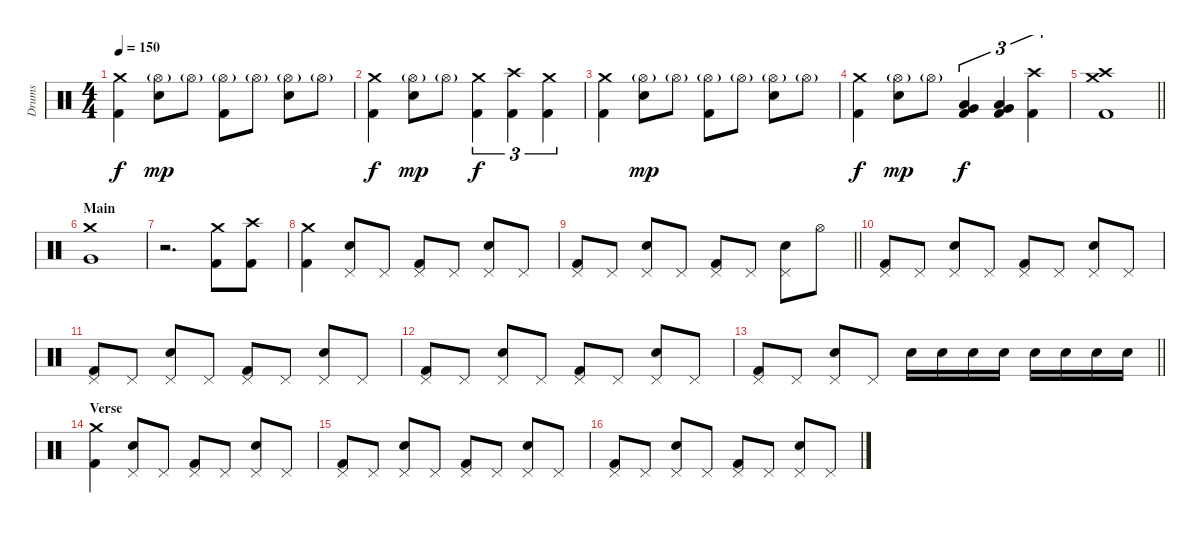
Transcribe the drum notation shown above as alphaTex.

\track ("Drums" "Drums") {instrument percussion}
\staff {score}
\articulation defaults
\ts (4 4)
\tempo 150
\clef neutral
\ks c
("Kick (hit) 2" "Crash medium (hit)").4{dy f} ("Snare (hit) 2" "Hi-Hat (open)"{g}).8{dy mp} "Hi-Hat (open)"{g}.8 ("Kick (hit) 2" "Hi-Hat (open)"{g}).8 "Hi-Hat (open)"{g}.8 ("Snare (hit) 2" "Hi-Hat (open)"{g}).8 "Hi-Hat (open)"{g}.8 |
("Kick (hit) 2" "Crash medium (hit)").4{dy f} ("Snare (hit) 2" "Hi-Hat (open)"{g}).8{dy mp} "Hi-Hat (open)"{g}.8 ("Kick (hit) 2" "Crash medium (hit)").4{tu (3 2) dy f} ("Kick (hit) 2" "Crash high (hit)").4{tu (3 2)} ("Kick (hit) 2" "Crash medium (hit)").4{tu (3 2)} |
("Kick (hit) 2" "Crash medium (hit)").4 ("Snare (hit) 2" "Hi-Hat (open)"{g}).8{dy mp} "Hi-Hat (open)"{g}.8 ("Kick (hit) 2" "Hi-Hat (open)"{g}).8 "Hi-Hat (open)"{g}.8 ("Snare (hit) 2" "Hi-Hat (open)"{g}).8 "Hi-Hat (open)"{g}.8 |
("Kick (hit) 2" "Crash medium (hit)").4{dy f} ("Snare (hit) 2" "Hi-Hat (open)"{g}).8{dy mp} "Hi-Hat (open)"{g}.8 ("Kick (hit) 2" "Low Tom (hit)" "Very Low Tom (hit)").4{tu (3 2) dy f} ("Kick (hit) 2" "Very Low Tom (hit)" "Low Floor Tom (hit)").4{tu (3 2)} ("Kick (hit) 2" "Crash high (hit)").4{tu (3 2)} |
\barLineRight lightlight
("Kick (hit) 2" "Crash high (hit)" "Crash medium (hit)").1 |
\section ("" "Main")
("Very Low Tom (hit)" "Crash medium (hit)").1 |
r.2{d} ("Kick (hit) 2" "Crash medium (hit)").8 ("Kick (hit) 2" "Crash high (hit)").8 |
("Kick (hit) 2" "Crash medium (hit)").4 ("Snare (hit) 2" "Pedal Hi-Hat (hit)").8 "Pedal Hi-Hat (hit)".8 ("Kick (hit) 2" "Pedal Hi-Hat (hit)").8 "Pedal Hi-Hat (hit)".8 ("Snare (hit) 2" "Pedal Hi-Hat (hit)").8 "Pedal Hi-Hat (hit)".8 |
\barLineRight lightlight
("Kick (hit) 2" "Pedal Hi-Hat (hit)").8 "Pedal Hi-Hat (hit)".8 ("Snare (hit) 2" "Pedal Hi-Hat (hit)").8 "Pedal Hi-Hat (hit)".8 ("Kick (hit) 2" "Pedal Hi-Hat (hit)").8 "Pedal Hi-Hat (hit)".8 ("Snare (hit) 2" "Pedal Hi-Hat (hit)").8 "Hi-Hat (open)".8 |
\section ("" "")
("Kick (hit) 2" "Pedal Hi-Hat (hit)").8 "Pedal Hi-Hat (hit)".8 ("Snare (hit) 2" "Pedal Hi-Hat (hit)").8 "Pedal Hi-Hat (hit)".8 ("Kick (hit) 2" "Pedal Hi-Hat (hit)").8 "Pedal Hi-Hat (hit)".8 ("Snare (hit) 2" "Pedal Hi-Hat (hit)").8 "Pedal Hi-Hat (hit)".8 |
("Kick (hit) 2" "Pedal Hi-Hat (hit)").8 "Pedal Hi-Hat (hit)".8 ("Snare (hit) 2" "Pedal Hi-Hat (hit)").8 "Pedal Hi-Hat (hit)".8 ("Kick (hit) 2" "Pedal Hi-Hat (hit)").8 "Pedal Hi-Hat (hit)".8 ("Snare (hit) 2" "Pedal Hi-Hat (hit)").8 "Pedal Hi-Hat (hit)".8 |
("Kick (hit) 2" "Pedal Hi-Hat (hit)").8 "Pedal Hi-Hat (hit)".8 ("Snare (hit) 2" "Pedal Hi-Hat (hit)").8 "Pedal Hi-Hat (hit)".8 ("Kick (hit) 2" "Pedal Hi-Hat (hit)").8 "Pedal Hi-Hat (hit)".8 ("Snare (hit) 2" "Pedal Hi-Hat (hit)").8 "Pedal Hi-Hat (hit)".8 |
\barLineRight lightlight
("Kick (hit) 2" "Pedal Hi-Hat (hit)").8 "Pedal Hi-Hat (hit)".8 ("Snare (hit) 2" "Pedal Hi-Hat (hit)").8 "Pedal Hi-Hat (hit)".8 "Snare (hit) 2".16 "Snare (hit) 2".16 "Snare (hit) 2".16 "Snare (hit) 2".16 "Snare (hit) 2".16 "Snare (hit) 2".16 "Snare (hit) 2".16 "Snare (hit) 2".16 |
\section ("" "Verse")
("Kick (hit) 2" "Crash medium (hit)").4 ("Snare (hit) 2" "Pedal Hi-Hat (hit)").8 "Pedal Hi-Hat (hit)".8 ("Kick (hit) 2" "Pedal Hi-Hat (hit)").8 "Pedal Hi-Hat (hit)".8 ("Snare (hit) 2" "Pedal Hi-Hat (hit)").8 "Pedal Hi-Hat (hit)".8 |
("Kick (hit) 2" "Pedal Hi-Hat (hit)").8 "Pedal Hi-Hat (hit)".8 ("Snare (hit) 2" "Pedal Hi-Hat (hit)").8 "Pedal Hi-Hat (hit)".8 ("Kick (hit) 2" "Pedal Hi-Hat (hit)").8 "Pedal Hi-Hat (hit)".8 ("Snare (hit) 2" "Pedal Hi-Hat (hit)").8 "Pedal Hi-Hat (hit)".8 |
("Kick (hit) 2" "Pedal Hi-Hat (hit)").8 "Pedal Hi-Hat (hit)".8 ("Snare (hit) 2" "Pedal Hi-Hat (hit)").8 "Pedal Hi-Hat (hit)".8 ("Kick (hit) 2" "Pedal Hi-Hat (hit)").8 "Pedal Hi-Hat (hit)".8 ("Snare (hit) 2" "Pedal Hi-Hat (hit)").8 "Pedal Hi-Hat (hit)".8
